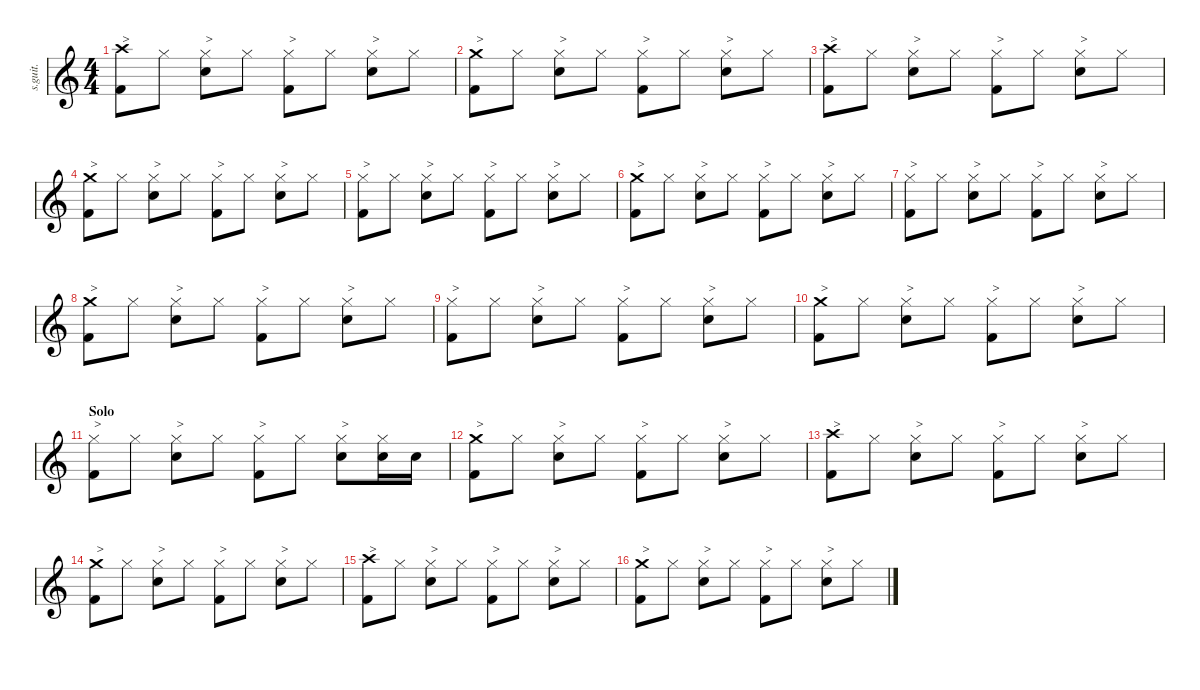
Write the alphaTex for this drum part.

\defaultSystemsLayout 4
\hideDynamics
\bracketExtendMode nobrackets
\track ("Chris Slade" "s.guit.") {instrument percussion}
\staff {score}
\articulation defaults
\ts (4 4)
\tempo (134 hide)
\clef g2
\ks c
("Crash high (hit)" "Kick (hit) 2").8{txt ">" lyrics (0 "") lyrics (1 "") lyrics (2 "") lyrics (3 "") lyrics (4 "") dy f} "Hi-Hat (closed)".8{lyrics (0 "") lyrics (1 "") lyrics (2 "") lyrics (3 "") lyrics (4 "")} ("Hi-Hat (closed)" "Snare (hit) 2").8{txt ">" lyrics (0 "") lyrics (1 "") lyrics (2 "") lyrics (3 "") lyrics (4 "")} "Hi-Hat (closed)".8{lyrics (0 "") lyrics (1 "") lyrics (2 "") lyrics (3 "") lyrics (4 "") dy mf} ("Hi-Hat (closed)" "Kick (hit) 2").8{txt ">" lyrics (0 "") lyrics (1 "") lyrics (2 "") lyrics (3 "") lyrics (4 "") dy ff} "Hi-Hat (closed)".8{lyrics (0 "") lyrics (1 "") lyrics (2 "") lyrics (3 "") lyrics (4 "") dy mf} ("Hi-Hat (closed)" "Snare (hit) 2").8{txt ">" lyrics (0 "") lyrics (1 "") lyrics (2 "") lyrics (3 "") lyrics (4 "") dy f} "Hi-Hat (closed)".8{lyrics (0 "") lyrics (1 "") lyrics (2 "") lyrics (3 "") lyrics (4 "") dy mf} |
("Crash medium (hit)" "Kick (hit) 2").8{txt ">" lyrics (0 "") lyrics (1 "") lyrics (2 "") lyrics (3 "") lyrics (4 "") dy ff} "Hi-Hat (closed)".8{lyrics (0 "") lyrics (1 "") lyrics (2 "") lyrics (3 "") lyrics (4 "") dy f} ("Hi-Hat (closed)" "Snare (hit) 2").8{txt ">" lyrics (0 "") lyrics (1 "") lyrics (2 "") lyrics (3 "") lyrics (4 "")} "Hi-Hat (closed)".8{lyrics (0 "") lyrics (1 "") lyrics (2 "") lyrics (3 "") lyrics (4 "") dy mf} ("Hi-Hat (closed)" "Kick (hit) 2").8{txt ">" lyrics (0 "") lyrics (1 "") lyrics (2 "") lyrics (3 "") lyrics (4 "") dy ff} "Hi-Hat (closed)".8{lyrics (0 "") lyrics (1 "") lyrics (2 "") lyrics (3 "") lyrics (4 "") dy mf} ("Hi-Hat (closed)" "Snare (hit) 2").8{txt ">" lyrics (0 "") lyrics (1 "") lyrics (2 "") lyrics (3 "") lyrics (4 "") dy f} "Hi-Hat (closed)".8{lyrics (0 "") lyrics (1 "") lyrics (2 "") lyrics (3 "") lyrics (4 "") dy mf} |
("Crash high (hit)" "Kick (hit) 2").8{txt ">" lyrics (0 "") lyrics (1 "") lyrics (2 "") lyrics (3 "") lyrics (4 "") dy f} "Hi-Hat (closed)".8{lyrics (0 "") lyrics (1 "") lyrics (2 "") lyrics (3 "") lyrics (4 "")} ("Hi-Hat (closed)" "Snare (hit) 2").8{txt ">" lyrics (0 "") lyrics (1 "") lyrics (2 "") lyrics (3 "") lyrics (4 "")} "Hi-Hat (closed)".8{lyrics (0 "") lyrics (1 "") lyrics (2 "") lyrics (3 "") lyrics (4 "") dy mf} ("Hi-Hat (closed)" "Kick (hit) 2").8{txt ">" lyrics (0 "") lyrics (1 "") lyrics (2 "") lyrics (3 "") lyrics (4 "") dy ff} "Hi-Hat (closed)".8{lyrics (0 "") lyrics (1 "") lyrics (2 "") lyrics (3 "") lyrics (4 "") dy mf} ("Hi-Hat (closed)" "Snare (hit) 2").8{txt ">" lyrics (0 "") lyrics (1 "") lyrics (2 "") lyrics (3 "") lyrics (4 "") dy f} "Hi-Hat (closed)".8{lyrics (0 "") lyrics (1 "") lyrics (2 "") lyrics (3 "") lyrics (4 "") dy mf} |
("Crash medium (hit)" "Kick (hit) 2").8{txt ">" lyrics (0 "") lyrics (1 "") lyrics (2 "") lyrics (3 "") lyrics (4 "") dy ff} "Hi-Hat (closed)".8{lyrics (0 "") lyrics (1 "") lyrics (2 "") lyrics (3 "") lyrics (4 "") dy f} ("Hi-Hat (closed)" "Snare (hit) 2").8{txt ">" lyrics (0 "") lyrics (1 "") lyrics (2 "") lyrics (3 "") lyrics (4 "")} "Hi-Hat (closed)".8{lyrics (0 "") lyrics (1 "") lyrics (2 "") lyrics (3 "") lyrics (4 "") dy mf} ("Hi-Hat (closed)" "Kick (hit) 2").8{txt ">" lyrics (0 "") lyrics (1 "") lyrics (2 "") lyrics (3 "") lyrics (4 "") dy ff} "Hi-Hat (closed)".8{lyrics (0 "") lyrics (1 "") lyrics (2 "") lyrics (3 "") lyrics (4 "") dy mf} ("Hi-Hat (closed)" "Snare (hit) 2").8{txt ">" lyrics (0 "") lyrics (1 "") lyrics (2 "") lyrics (3 "") lyrics (4 "") dy f} "Hi-Hat (closed)".8{lyrics (0 "") lyrics (1 "") lyrics (2 "") lyrics (3 "") lyrics (4 "") dy mf} |
("Hi-Hat (closed)" "Kick (hit) 2").8{txt ">" lyrics (0 "") lyrics (1 "") lyrics (2 "") lyrics (3 "") lyrics (4 "") dy f} "Hi-Hat (closed)".8{lyrics (0 "") lyrics (1 "") lyrics (2 "") lyrics (3 "") lyrics (4 "")} ("Hi-Hat (closed)" "Snare (hit) 2").8{txt ">" lyrics (0 "") lyrics (1 "") lyrics (2 "") lyrics (3 "") lyrics (4 "")} "Hi-Hat (closed)".8{lyrics (0 "") lyrics (1 "") lyrics (2 "") lyrics (3 "") lyrics (4 "") dy mf} ("Hi-Hat (closed)" "Kick (hit) 2").8{txt ">" lyrics (0 "") lyrics (1 "") lyrics (2 "") lyrics (3 "") lyrics (4 "") dy ff} "Hi-Hat (closed)".8{lyrics (0 "") lyrics (1 "") lyrics (2 "") lyrics (3 "") lyrics (4 "") dy mf} ("Hi-Hat (closed)" "Snare (hit) 2").8{txt ">" lyrics (0 "") lyrics (1 "") lyrics (2 "") lyrics (3 "") lyrics (4 "") dy f} "Hi-Hat (closed)".8{lyrics (0 "") lyrics (1 "") lyrics (2 "") lyrics (3 "") lyrics (4 "") dy mf} |
("Crash medium (hit)" "Kick (hit) 2").8{txt ">" lyrics (0 "") lyrics (1 "") lyrics (2 "") lyrics (3 "") lyrics (4 "") dy ff} "Hi-Hat (closed)".8{lyrics (0 "") lyrics (1 "") lyrics (2 "") lyrics (3 "") lyrics (4 "") dy f} ("Hi-Hat (closed)" "Snare (hit) 2").8{txt ">" lyrics (0 "") lyrics (1 "") lyrics (2 "") lyrics (3 "") lyrics (4 "")} "Hi-Hat (closed)".8{lyrics (0 "") lyrics (1 "") lyrics (2 "") lyrics (3 "") lyrics (4 "") dy mf} ("Hi-Hat (closed)" "Kick (hit) 2").8{txt ">" lyrics (0 "") lyrics (1 "") lyrics (2 "") lyrics (3 "") lyrics (4 "") dy ff} "Hi-Hat (closed)".8{lyrics (0 "") lyrics (1 "") lyrics (2 "") lyrics (3 "") lyrics (4 "") dy mf} ("Hi-Hat (closed)" "Snare (hit) 2").8{txt ">" lyrics (0 "") lyrics (1 "") lyrics (2 "") lyrics (3 "") lyrics (4 "") dy f} "Hi-Hat (closed)".8{lyrics (0 "") lyrics (1 "") lyrics (2 "") lyrics (3 "") lyrics (4 "") dy mf} |
("Hi-Hat (closed)" "Kick (hit) 2").8{txt ">" lyrics (0 "") lyrics (1 "") lyrics (2 "") lyrics (3 "") lyrics (4 "") dy f} "Hi-Hat (closed)".8{lyrics (0 "") lyrics (1 "") lyrics (2 "") lyrics (3 "") lyrics (4 "")} ("Hi-Hat (closed)" "Snare (hit) 2").8{txt ">" lyrics (0 "") lyrics (1 "") lyrics (2 "") lyrics (3 "") lyrics (4 "")} "Hi-Hat (closed)".8{lyrics (0 "") lyrics (1 "") lyrics (2 "") lyrics (3 "") lyrics (4 "") dy mf} ("Hi-Hat (closed)" "Kick (hit) 2").8{txt ">" lyrics (0 "") lyrics (1 "") lyrics (2 "") lyrics (3 "") lyrics (4 "") dy ff} "Hi-Hat (closed)".8{lyrics (0 "") lyrics (1 "") lyrics (2 "") lyrics (3 "") lyrics (4 "") dy mf} ("Hi-Hat (closed)" "Snare (hit) 2").8{txt ">" lyrics (0 "") lyrics (1 "") lyrics (2 "") lyrics (3 "") lyrics (4 "") dy f} "Hi-Hat (closed)".8{lyrics (0 "") lyrics (1 "") lyrics (2 "") lyrics (3 "") lyrics (4 "") dy mf} |
("Crash medium (hit)" "Kick (hit) 2").8{txt ">" lyrics (0 "") lyrics (1 "") lyrics (2 "") lyrics (3 "") lyrics (4 "") dy ff} "Hi-Hat (closed)".8{lyrics (0 "") lyrics (1 "") lyrics (2 "") lyrics (3 "") lyrics (4 "") dy f} ("Hi-Hat (closed)" "Snare (hit) 2").8{txt ">" lyrics (0 "") lyrics (1 "") lyrics (2 "") lyrics (3 "") lyrics (4 "")} "Hi-Hat (closed)".8{lyrics (0 "") lyrics (1 "") lyrics (2 "") lyrics (3 "") lyrics (4 "") dy mf} ("Hi-Hat (closed)" "Kick (hit) 2").8{txt ">" lyrics (0 "") lyrics (1 "") lyrics (2 "") lyrics (3 "") lyrics (4 "") dy ff} "Hi-Hat (closed)".8{lyrics (0 "") lyrics (1 "") lyrics (2 "") lyrics (3 "") lyrics (4 "") dy mf} ("Hi-Hat (closed)" "Snare (hit) 2").8{txt ">" lyrics (0 "") lyrics (1 "") lyrics (2 "") lyrics (3 "") lyrics (4 "") dy f} "Hi-Hat (closed)".8{lyrics (0 "") lyrics (1 "") lyrics (2 "") lyrics (3 "") lyrics (4 "") dy mf} |
("Hi-Hat (closed)" "Kick (hit) 2").8{txt ">" lyrics (0 "") lyrics (1 "") lyrics (2 "") lyrics (3 "") lyrics (4 "") dy f} "Hi-Hat (closed)".8{lyrics (0 "") lyrics (1 "") lyrics (2 "") lyrics (3 "") lyrics (4 "")} ("Hi-Hat (closed)" "Snare (hit) 2").8{txt ">" lyrics (0 "") lyrics (1 "") lyrics (2 "") lyrics (3 "") lyrics (4 "")} "Hi-Hat (closed)".8{lyrics (0 "") lyrics (1 "") lyrics (2 "") lyrics (3 "") lyrics (4 "") dy mf} ("Hi-Hat (closed)" "Kick (hit) 2").8{txt ">" lyrics (0 "") lyrics (1 "") lyrics (2 "") lyrics (3 "") lyrics (4 "") dy ff} "Hi-Hat (closed)".8{lyrics (0 "") lyrics (1 "") lyrics (2 "") lyrics (3 "") lyrics (4 "") dy mf} ("Hi-Hat (closed)" "Snare (hit) 2").8{txt ">" lyrics (0 "") lyrics (1 "") lyrics (2 "") lyrics (3 "") lyrics (4 "") dy f} "Hi-Hat (closed)".8{lyrics (0 "") lyrics (1 "") lyrics (2 "") lyrics (3 "") lyrics (4 "") dy mf} |
("Crash medium (hit)" "Kick (hit) 2").8{txt ">" lyrics (0 "") lyrics (1 "") lyrics (2 "") lyrics (3 "") lyrics (4 "") dy ff} "Hi-Hat (closed)".8{lyrics (0 "") lyrics (1 "") lyrics (2 "") lyrics (3 "") lyrics (4 "") dy f} ("Hi-Hat (closed)" "Snare (hit) 2").8{txt ">" lyrics (0 "") lyrics (1 "") lyrics (2 "") lyrics (3 "") lyrics (4 "")} "Hi-Hat (closed)".8{lyrics (0 "") lyrics (1 "") lyrics (2 "") lyrics (3 "") lyrics (4 "") dy mf} ("Hi-Hat (closed)" "Kick (hit) 2").8{txt ">" lyrics (0 "") lyrics (1 "") lyrics (2 "") lyrics (3 "") lyrics (4 "") dy ff} "Hi-Hat (closed)".8{lyrics (0 "") lyrics (1 "") lyrics (2 "") lyrics (3 "") lyrics (4 "") dy mf} ("Hi-Hat (closed)" "Snare (hit) 2").8{txt ">" lyrics (0 "") lyrics (1 "") lyrics (2 "") lyrics (3 "") lyrics (4 "") dy f} "Hi-Hat (closed)".8{lyrics (0 "") lyrics (1 "") lyrics (2 "") lyrics (3 "") lyrics (4 "") dy mf} |
\section ("" "Solo")
("Hi-Hat (closed)" "Kick (hit) 2").8{txt ">" lyrics (0 "") lyrics (1 "") lyrics (2 "") lyrics (3 "") lyrics (4 "") dy f} "Hi-Hat (closed)".8{lyrics (0 "") lyrics (1 "") lyrics (2 "") lyrics (3 "") lyrics (4 "")} ("Hi-Hat (closed)" "Snare (hit) 2").8{txt ">" lyrics (0 "") lyrics (1 "") lyrics (2 "") lyrics (3 "") lyrics (4 "")} "Hi-Hat (closed)".8{lyrics (0 "") lyrics (1 "") lyrics (2 "") lyrics (3 "") lyrics (4 "") dy mf} ("Hi-Hat (closed)" "Kick (hit) 2").8{txt ">" lyrics (0 "") lyrics (1 "") lyrics (2 "") lyrics (3 "") lyrics (4 "") dy ff} "Hi-Hat (closed)".8{lyrics (0 "") lyrics (1 "") lyrics (2 "") lyrics (3 "") lyrics (4 "") dy mf} ("Hi-Hat (closed)" "Snare (hit) 2").8{txt ">" lyrics (0 "") lyrics (1 "") lyrics (2 "") lyrics (3 "") lyrics (4 "") dy f} ("Hi-Hat (closed)" "Snare (hit) 2").16{lyrics (0 "") lyrics (1 "") lyrics (2 "") lyrics (3 "") lyrics (4 "")} "Snare (hit) 2".16{lyrics (0 "") lyrics (1 "") lyrics (2 "") lyrics (3 "") lyrics (4 "")} |
("Crash medium (hit)" "Kick (hit) 2").8{txt ">" lyrics (0 "") lyrics (1 "") lyrics (2 "") lyrics (3 "") lyrics (4 "") dy ff} "Hi-Hat (closed)".8{lyrics (0 "") lyrics (1 "") lyrics (2 "") lyrics (3 "") lyrics (4 "") dy f} ("Hi-Hat (closed)" "Snare (hit) 2").8{txt ">" lyrics (0 "") lyrics (1 "") lyrics (2 "") lyrics (3 "") lyrics (4 "")} "Hi-Hat (closed)".8{lyrics (0 "") lyrics (1 "") lyrics (2 "") lyrics (3 "") lyrics (4 "") dy mf} ("Hi-Hat (closed)" "Kick (hit) 2").8{txt ">" lyrics (0 "") lyrics (1 "") lyrics (2 "") lyrics (3 "") lyrics (4 "") dy ff} "Hi-Hat (closed)".8{lyrics (0 "") lyrics (1 "") lyrics (2 "") lyrics (3 "") lyrics (4 "") dy mf} ("Hi-Hat (closed)" "Snare (hit) 2").8{txt ">" lyrics (0 "") lyrics (1 "") lyrics (2 "") lyrics (3 "") lyrics (4 "") dy f} "Hi-Hat (closed)".8{lyrics (0 "") lyrics (1 "") lyrics (2 "") lyrics (3 "") lyrics (4 "") dy mf} |
("Crash high (hit)" "Kick (hit) 2").8{txt ">" lyrics (0 "") lyrics (1 "") lyrics (2 "") lyrics (3 "") lyrics (4 "") dy f} "Hi-Hat (closed)".8{lyrics (0 "") lyrics (1 "") lyrics (2 "") lyrics (3 "") lyrics (4 "")} ("Hi-Hat (closed)" "Snare (hit) 2").8{txt ">" lyrics (0 "") lyrics (1 "") lyrics (2 "") lyrics (3 "") lyrics (4 "")} "Hi-Hat (closed)".8{lyrics (0 "") lyrics (1 "") lyrics (2 "") lyrics (3 "") lyrics (4 "") dy mf} ("Hi-Hat (closed)" "Kick (hit) 2").8{txt ">" lyrics (0 "") lyrics (1 "") lyrics (2 "") lyrics (3 "") lyrics (4 "") dy ff} "Hi-Hat (closed)".8{lyrics (0 "") lyrics (1 "") lyrics (2 "") lyrics (3 "") lyrics (4 "") dy mf} ("Hi-Hat (closed)" "Snare (hit) 2").8{txt ">" lyrics (0 "") lyrics (1 "") lyrics (2 "") lyrics (3 "") lyrics (4 "") dy f} "Hi-Hat (closed)".8{lyrics (0 "") lyrics (1 "") lyrics (2 "") lyrics (3 "") lyrics (4 "") dy mf} |
("Crash medium (hit)" "Kick (hit) 2").8{txt ">" lyrics (0 "") lyrics (1 "") lyrics (2 "") lyrics (3 "") lyrics (4 "") dy ff} "Hi-Hat (closed)".8{lyrics (0 "") lyrics (1 "") lyrics (2 "") lyrics (3 "") lyrics (4 "") dy f} ("Hi-Hat (closed)" "Snare (hit) 2").8{txt ">" lyrics (0 "") lyrics (1 "") lyrics (2 "") lyrics (3 "") lyrics (4 "")} "Hi-Hat (closed)".8{lyrics (0 "") lyrics (1 "") lyrics (2 "") lyrics (3 "") lyrics (4 "") dy mf} ("Hi-Hat (closed)" "Kick (hit) 2").8{txt ">" lyrics (0 "") lyrics (1 "") lyrics (2 "") lyrics (3 "") lyrics (4 "") dy ff} "Hi-Hat (closed)".8{lyrics (0 "") lyrics (1 "") lyrics (2 "") lyrics (3 "") lyrics (4 "") dy mf} ("Hi-Hat (closed)" "Snare (hit) 2").8{txt ">" lyrics (0 "") lyrics (1 "") lyrics (2 "") lyrics (3 "") lyrics (4 "") dy f} "Hi-Hat (closed)".8{lyrics (0 "") lyrics (1 "") lyrics (2 "") lyrics (3 "") lyrics (4 "") dy mf} |
("Crash high (hit)" "Kick (hit) 2").8{txt ">" lyrics (0 "") lyrics (1 "") lyrics (2 "") lyrics (3 "") lyrics (4 "") dy f} "Hi-Hat (closed)".8{lyrics (0 "") lyrics (1 "") lyrics (2 "") lyrics (3 "") lyrics (4 "")} ("Hi-Hat (closed)" "Snare (hit) 2").8{txt ">" lyrics (0 "") lyrics (1 "") lyrics (2 "") lyrics (3 "") lyrics (4 "")} "Hi-Hat (closed)".8{lyrics (0 "") lyrics (1 "") lyrics (2 "") lyrics (3 "") lyrics (4 "") dy mf} ("Hi-Hat (closed)" "Kick (hit) 2").8{txt ">" lyrics (0 "") lyrics (1 "") lyrics (2 "") lyrics (3 "") lyrics (4 "") dy ff} "Hi-Hat (closed)".8{lyrics (0 "") lyrics (1 "") lyrics (2 "") lyrics (3 "") lyrics (4 "") dy mf} ("Hi-Hat (closed)" "Snare (hit) 2").8{txt ">" lyrics (0 "") lyrics (1 "") lyrics (2 "") lyrics (3 "") lyrics (4 "") dy f} "Hi-Hat (closed)".8{lyrics (0 "") lyrics (1 "") lyrics (2 "") lyrics (3 "") lyrics (4 "") dy mf} |
("Crash medium (hit)" "Kick (hit) 2").8{txt ">" lyrics (0 "") lyrics (1 "") lyrics (2 "") lyrics (3 "") lyrics (4 "") dy ff} "Hi-Hat (closed)".8{lyrics (0 "") lyrics (1 "") lyrics (2 "") lyrics (3 "") lyrics (4 "") dy f} ("Hi-Hat (closed)" "Snare (hit) 2").8{txt ">" lyrics (0 "") lyrics (1 "") lyrics (2 "") lyrics (3 "") lyrics (4 "")} "Hi-Hat (closed)".8{lyrics (0 "") lyrics (1 "") lyrics (2 "") lyrics (3 "") lyrics (4 "") dy mf} ("Hi-Hat (closed)" "Kick (hit) 2").8{txt ">" lyrics (0 "") lyrics (1 "") lyrics (2 "") lyrics (3 "") lyrics (4 "") dy ff} "Hi-Hat (closed)".8{lyrics (0 "") lyrics (1 "") lyrics (2 "") lyrics (3 "") lyrics (4 "") dy mf} ("Hi-Hat (closed)" "Snare (hit) 2").8{txt ">" lyrics (0 "") lyrics (1 "") lyrics (2 "") lyrics (3 "") lyrics (4 "") dy f} "Hi-Hat (closed)".8{lyrics (0 "") lyrics (1 "") lyrics (2 "") lyrics (3 "") lyrics (4 "") dy mf}
